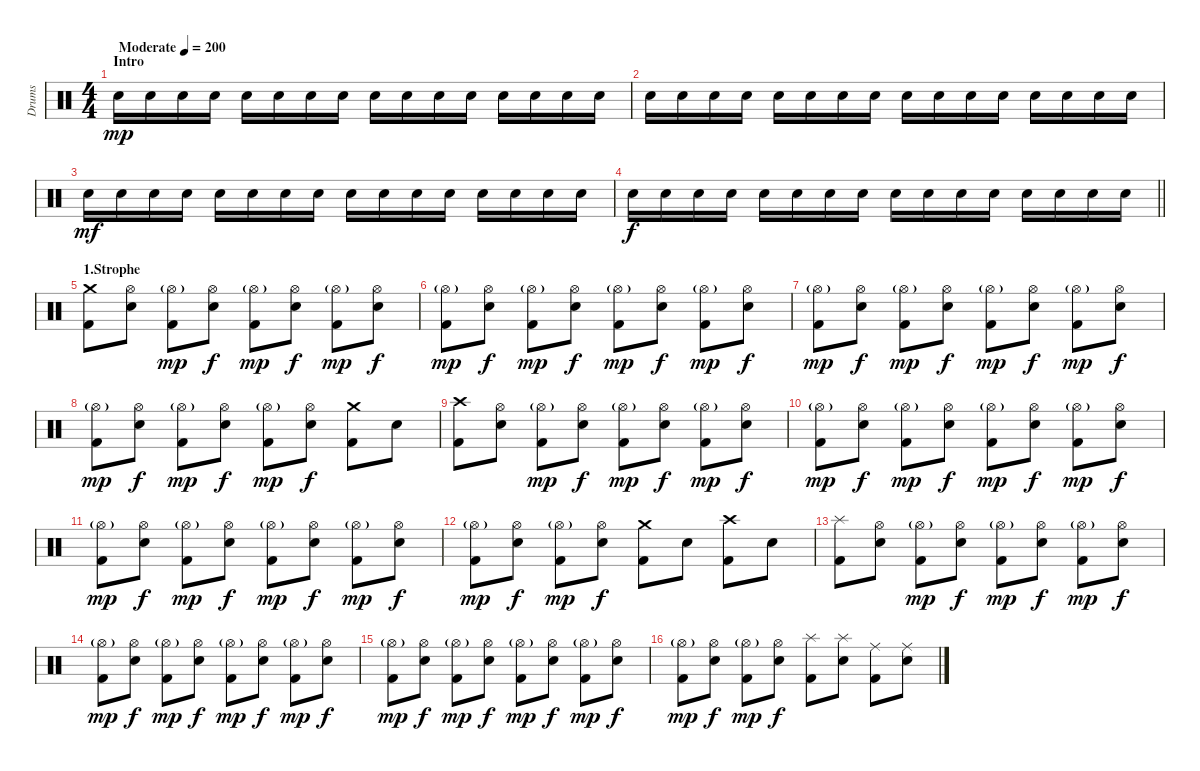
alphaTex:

\track ("Drums" "Drums") {instrument percussion}
\staff {score}
\articulation defaults
\ts (4 4)
\section ("" "Intro")
\tempo (200 "Moderate")
\clef neutral
\ks c "Electric Snare (hit)".16{dy mp} "Electric Snare (hit)".16 "Electric Snare (hit)".16 "Electric Snare (hit)".16 "Electric Snare (hit)".16 "Electric Snare (hit)".16 "Electric Snare (hit)".16 "Electric Snare (hit)".16 "Electric Snare (hit)".16 "Electric Snare (hit)".16 "Electric Snare (hit)".16 "Electric Snare (hit)".16 "Electric Snare (hit)".16 "Electric Snare (hit)".16 "Electric Snare (hit)".16 "Electric Snare (hit)".16
|
"Electric Snare (hit)".16 "Electric Snare (hit)".16 "Electric Snare (hit)".16 "Electric Snare (hit)".16 "Electric Snare (hit)".16 "Electric Snare (hit)".16 "Electric Snare (hit)".16 "Electric Snare (hit)".16 "Electric Snare (hit)".16 "Electric Snare (hit)".16 "Electric Snare (hit)".16 "Electric Snare (hit)".16 "Electric Snare (hit)".16 "Electric Snare (hit)".16 "Electric Snare (hit)".16 "Electric Snare (hit)".16 |
"Electric Snare (hit)".16{dy mf} "Electric Snare (hit)".16 "Electric Snare (hit)".16 "Electric Snare (hit)".16 "Electric Snare (hit)".16 "Electric Snare (hit)".16 "Electric Snare (hit)".16 "Electric Snare (hit)".16 "Electric Snare (hit)".16 "Electric Snare (hit)".16 "Electric Snare (hit)".16 "Electric Snare (hit)".16 "Electric Snare (hit)".16 "Electric Snare (hit)".16 "Electric Snare (hit)".16 "Electric Snare (hit)".16 |
\barLineRight lightlight "Electric Snare (hit)".16{dy f} "Electric Snare (hit)".16 "Electric Snare (hit)".16 "Electric Snare (hit)".16 "Electric Snare (hit)".16 "Electric Snare (hit)".16 "Electric Snare (hit)".16 "Electric Snare (hit)".16 "Electric Snare (hit)".16 "Electric Snare (hit)".16 "Electric Snare (hit)".16 "Electric Snare (hit)".16 "Electric Snare (hit)".16 "Electric Snare (hit)".16 "Electric Snare (hit)".16 "Electric Snare (hit)".16
|
\section ("" "1.Strophe")
("Crash medium (hit)" "Kick (hit) 2").8 ("Hi-Hat (open)" "Electric Snare (hit)").8 ("Hi-Hat (open)"{g} "Kick (hit) 2").8{dy mp} ("Hi-Hat (open)" "Electric Snare (hit)").8{dy f} ("Hi-Hat (open)"{g} "Kick (hit) 2").8{dy mp} ("Hi-Hat (open)" "Electric Snare (hit)").8{dy f} ("Hi-Hat (open)"{g} "Kick (hit) 2").8{dy mp} ("Hi-Hat (open)" "Electric Snare (hit)").8{dy f} |
("Hi-Hat (open)"{g} "Kick (hit) 2").8{dy mp} ("Hi-Hat (open)" "Electric Snare (hit)").8{dy f} ("Hi-Hat (open)"{g} "Kick (hit) 2").8{dy mp} ("Hi-Hat (open)" "Electric Snare (hit)").8{dy f} ("Hi-Hat (open)"{g} "Kick (hit) 2").8{dy mp} ("Hi-Hat (open)" "Electric Snare (hit)").8{dy f} ("Hi-Hat (open)"{g} "Kick (hit) 2").8{dy mp} ("Hi-Hat (open)" "Electric Snare (hit)").8{dy f} |
("Hi-Hat (open)"{g} "Kick (hit) 2").8{dy mp} ("Hi-Hat (open)" "Electric Snare (hit)").8{dy f} ("Hi-Hat (open)"{g} "Kick (hit) 2").8{dy mp} ("Hi-Hat (open)" "Electric Snare (hit)").8{dy f} ("Hi-Hat (open)"{g} "Kick (hit) 2").8{dy mp} ("Hi-Hat (open)" "Electric Snare (hit)").8{dy f} ("Hi-Hat (open)"{g} "Kick (hit) 2").8{dy mp} ("Hi-Hat (open)" "Electric Snare (hit)").8{dy f} |
("Hi-Hat (open)"{g} "Kick (hit) 2").8{dy mp} ("Hi-Hat (open)" "Electric Snare (hit)").8{dy f} ("Hi-Hat (open)"{g} "Kick (hit) 2").8{dy mp} ("Hi-Hat (open)" "Electric Snare (hit)").8{dy f} ("Hi-Hat (open)"{g} "Kick (hit) 2").8{dy mp} ("Hi-Hat (open)" "Electric Snare (hit)").8{dy f} ("Crash medium (hit)" "Kick (hit) 2").8 "Electric Snare (hit)".8 |
("Crash high (hit)" "Kick (hit) 2").8 ("Hi-Hat (open)" "Electric Snare (hit)").8 ("Hi-Hat (open)"{g} "Kick (hit) 2").8{dy mp} ("Hi-Hat (open)" "Electric Snare (hit)").8{dy f} ("Hi-Hat (open)"{g} "Kick (hit) 2").8{dy mp} ("Hi-Hat (open)" "Electric Snare (hit)").8{dy f} ("Hi-Hat (open)"{g} "Kick (hit) 2").8{dy mp} ("Hi-Hat (open)" "Electric Snare (hit)").8{dy f} |
("Hi-Hat (open)"{g} "Kick (hit) 2").8{dy mp} ("Hi-Hat (open)" "Electric Snare (hit)").8{dy f} ("Hi-Hat (open)"{g} "Kick (hit) 2").8{dy mp} ("Hi-Hat (open)" "Electric Snare (hit)").8{dy f} ("Hi-Hat (open)"{g} "Kick (hit) 2").8{dy mp} ("Hi-Hat (open)" "Electric Snare (hit)").8{dy f} ("Hi-Hat (open)"{g} "Kick (hit) 2").8{dy mp} ("Hi-Hat (open)" "Electric Snare (hit)").8{dy f} |
("Hi-Hat (open)"{g} "Kick (hit) 2").8{dy mp} ("Hi-Hat (open)" "Electric Snare (hit)").8{dy f} ("Hi-Hat (open)"{g} "Kick (hit) 2").8{dy mp} ("Hi-Hat (open)" "Electric Snare (hit)").8{dy f} ("Hi-Hat (open)"{g} "Kick (hit) 2").8{dy mp} ("Hi-Hat (open)" "Electric Snare (hit)").8{dy f} ("Hi-Hat (open)"{g} "Kick (hit) 2").8{dy mp} ("Hi-Hat (open)" "Electric Snare (hit)").8{dy f} |
("Hi-Hat (open)"{g} "Kick (hit) 2").8{dy mp} ("Hi-Hat (open)" "Electric Snare (hit)").8{dy f} ("Hi-Hat (open)"{g} "Kick (hit) 2").8{dy mp} ("Hi-Hat (open)" "Electric Snare (hit)").8{dy f} ("Crash medium (hit)" "Kick (hit) 2").8 "Electric Snare (hit)".8 ("Crash high (hit)" "Kick (hit) 2").8 "Electric Snare (hit)".8 |
("Splash (hit)" "Kick (hit) 2").8 ("Hi-Hat (open)" "Electric Snare (hit)").8 ("Hi-Hat (open)"{g} "Kick (hit) 2").8{dy mp} ("Hi-Hat (open)" "Electric Snare (hit)").8{dy f} ("Hi-Hat (open)"{g} "Kick (hit) 2").8{dy mp} ("Hi-Hat (open)" "Electric Snare (hit)").8{dy f} ("Hi-Hat (open)"{g} "Kick (hit) 2").8{dy mp} ("Hi-Hat (open)" "Electric Snare (hit)").8{dy f} |
("Hi-Hat (open)"{g} "Kick (hit) 2").8{dy mp} ("Hi-Hat (open)" "Electric Snare (hit)").8{dy f} ("Hi-Hat (open)"{g} "Kick (hit) 2").8{dy mp} ("Hi-Hat (open)" "Electric Snare (hit)").8{dy f} ("Hi-Hat (open)"{g} "Kick (hit) 2").8{dy mp} ("Hi-Hat (open)" "Electric Snare (hit)").8{dy f} ("Hi-Hat (open)"{g} "Kick (hit) 2").8{dy mp} ("Hi-Hat (open)" "Electric Snare (hit)").8{dy f} |
("Hi-Hat (open)"{g} "Kick (hit) 2").8{dy mp} ("Hi-Hat (open)" "Electric Snare (hit)").8{dy f} ("Hi-Hat (open)"{g} "Kick (hit) 2").8{dy mp} ("Hi-Hat (open)" "Electric Snare (hit)").8{dy f} ("Hi-Hat (open)"{g} "Kick (hit) 2").8{dy mp} ("Hi-Hat (open)" "Electric Snare (hit)").8{dy f} ("Hi-Hat (open)"{g} "Kick (hit) 2").8{dy mp} ("Hi-Hat (open)" "Electric Snare (hit)").8{dy f} |
("Hi-Hat (open)"{g} "Kick (hit) 2").8{dy mp} ("Hi-Hat (open)" "Electric Snare (hit)").8{dy f} ("Hi-Hat (open)"{g} "Kick (hit) 2").8{dy mp} ("Hi-Hat (open)" "Electric Snare (hit)").8{dy f} ("Splash (hit)" "Kick (hit) 2").8 ("Splash (hit)" "Electric Snare (hit)").8 ("Ride (middle)" "Kick (hit) 2").8 ("Ride (middle)" "Electric Snare (hit)").8
